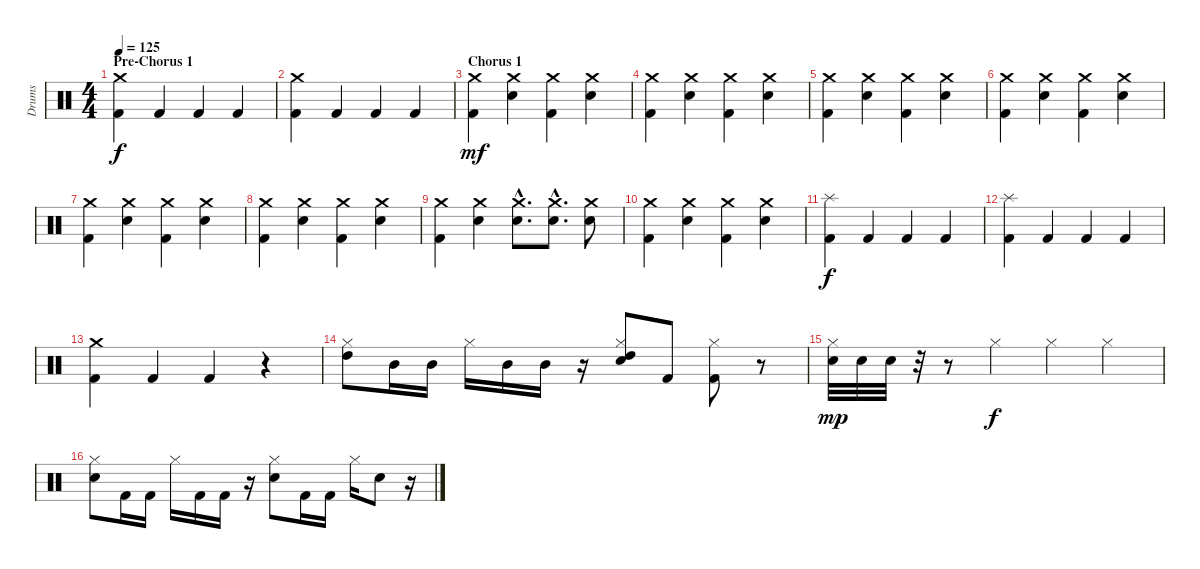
\track ("Drums" "Drums") {instrument percussion}
\staff {score}
\articulation defaults
\ts (4 4)
\section ("" "Pre-Chorus 1")
\tempo 125
\clef neutral
\ks c
("Crash medium (hit)" "Kick (hit) 2").4{dy f} "Kick (hit) 2".4 "Kick (hit) 2".4 "Kick (hit) 2".4 |
("Crash medium (hit)" "Kick (hit) 2").4 "Kick (hit) 2".4 "Kick (hit) 2".4 "Kick (hit) 2".4 |
\section ("" "Chorus 1")
("Crash medium (hit)" "Kick (hit) 2").4{dy mf} ("Crash medium (hit)" "Electric Snare (hit)").4 ("Crash medium (hit)" "Kick (hit) 2").4 ("Crash medium (hit)" "Electric Snare (hit)").4 |
("Crash medium (hit)" "Kick (hit) 2").4 ("Crash medium (hit)" "Electric Snare (hit)").4 ("Crash medium (hit)" "Kick (hit) 2").4 ("Crash medium (hit)" "Electric Snare (hit)").4 |
("Crash medium (hit)" "Kick (hit) 2").4 ("Crash medium (hit)" "Electric Snare (hit)").4 ("Crash medium (hit)" "Kick (hit) 2").4 ("Crash medium (hit)" "Electric Snare (hit)").4 |
("Crash medium (hit)" "Kick (hit) 2").4 ("Crash medium (hit)" "Electric Snare (hit)").4 ("Crash medium (hit)" "Kick (hit) 2").4 ("Crash medium (hit)" "Electric Snare (hit)").4 |
("Crash medium (hit)" "Kick (hit) 2").4 ("Crash medium (hit)" "Electric Snare (hit)").4 ("Crash medium (hit)" "Kick (hit) 2").4 ("Crash medium (hit)" "Electric Snare (hit)").4 |
("Crash medium (hit)" "Kick (hit) 2").4 ("Crash medium (hit)" "Electric Snare (hit)").4 ("Crash medium (hit)" "Kick (hit) 2").4 ("Crash medium (hit)" "Electric Snare (hit)").4 |
("Crash medium (hit)" "Kick (hit) 2").4 ("Crash medium (hit)" "Electric Snare (hit)").4 ("Crash medium (hit)"{hac} "Electric Snare (hit)"{hac}).8{d} ("Crash medium (hit)"{hac} "Electric Snare (hit)"{hac}).8{d} ("Crash medium (hit)" "Electric Snare (hit)").8 |
("Crash medium (hit)" "Kick (hit) 2").4 ("Crash medium (hit)" "Electric Snare (hit)").4 ("Crash medium (hit)" "Kick (hit) 2").4 ("Crash medium (hit)" "Electric Snare (hit)").4 |
("Splash (hit)" "Kick (hit) 2").4{dy f} "Kick (hit) 2".4 "Kick (hit) 2".4 "Kick (hit) 2".4 |
("Splash (hit)" "Kick (hit) 2").4 "Kick (hit) 2".4 "Kick (hit) 2".4 "Kick (hit) 2".4 |
("Crash medium (hit)" "Kick (hit) 2").4 "Kick (hit) 2".4 "Kick (hit) 2".4 r.4 |
("Hi-Hat (closed)" "High Tom (hit)").8 "Mid Tom (hit)".16 "Mid Tom (hit)".16 "Hi-Hat (closed)".16 "Mid Tom (hit)".16 "Mid Tom (hit)".16 r.16 ("Hi-Hat (closed)" "High Tom (hit)" "Electric Snare (hit)").8 "Kick (hit) 2".8 ("Hi-Hat (closed)" "Kick (hit) 2").8 r.8 |
("Hi-Hat (closed)" "Electric Snare (hit)").32{dy mp} "Electric Snare (hit)".32 "Electric Snare (hit)".32 r.32 r.8 "Hi-Hat (closed)".4{dy f} "Hi-Hat (closed)".4 "Hi-Hat (closed)".4 |
("Hi-Hat (closed)" "Electric Snare (hit)").8 "Kick (hit) 2".16 "Kick (hit) 2".16 "Hi-Hat (closed)".16 "Kick (hit) 2".16 "Kick (hit) 2".16 r.16 ("Hi-Hat (closed)" "Electric Snare (hit)").8 "Kick (hit) 2".16 "Kick (hit) 2".16 "Hi-Hat (closed)".16 "Electric Snare (hit)".8 r.16
